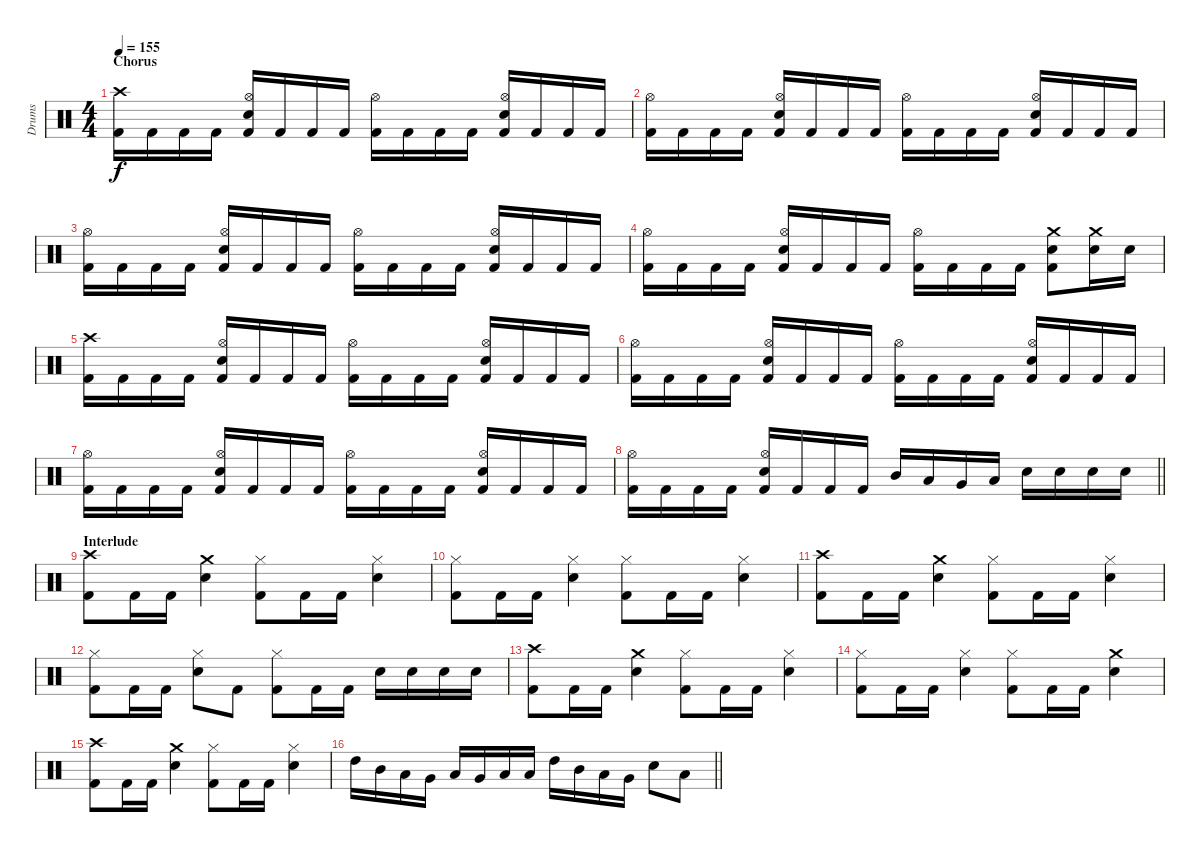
\track ("Drums" "Drums") {instrument percussion}
\staff {score}
\articulation defaults
\ts (4 4)
\section ("" "Chorus")
\tempo 155
\clef neutral
\ks c
("Crash high (hit)" "Kick (hit) 2").16{dy f} "Kick (hit) 2".16 "Kick (hit) 2".16 "Kick (hit) 2".16 ("Hi-Hat (open)" "Snare (hit) 2" "Kick (hit) 2").16 "Kick (hit) 2".16 "Kick (hit) 2".16 "Kick (hit) 2".16 ("Hi-Hat (open)" "Kick (hit) 2").16 "Kick (hit) 2".16 "Kick (hit) 2".16 "Kick (hit) 2".16 ("Hi-Hat (open)" "Snare (hit) 2" "Kick (hit) 2").16 "Kick (hit) 2".16 "Kick (hit) 2".16 "Kick (hit) 2".16 |
("Hi-Hat (open)" "Kick (hit) 2").16 "Kick (hit) 2".16 "Kick (hit) 2".16 "Kick (hit) 2".16 ("Hi-Hat (open)" "Snare (hit) 2" "Kick (hit) 2").16 "Kick (hit) 2".16 "Kick (hit) 2".16 "Kick (hit) 2".16 ("Hi-Hat (open)" "Kick (hit) 2").16 "Kick (hit) 2".16 "Kick (hit) 2".16 "Kick (hit) 2".16 ("Hi-Hat (open)" "Snare (hit) 2" "Kick (hit) 2").16 "Kick (hit) 2".16 "Kick (hit) 2".16 "Kick (hit) 2".16 |
("Hi-Hat (open)" "Kick (hit) 2").16 "Kick (hit) 2".16 "Kick (hit) 2".16 "Kick (hit) 2".16 ("Hi-Hat (open)" "Snare (hit) 2" "Kick (hit) 2").16 "Kick (hit) 2".16 "Kick (hit) 2".16 "Kick (hit) 2".16 ("Hi-Hat (open)" "Kick (hit) 2").16 "Kick (hit) 2".16 "Kick (hit) 2".16 "Kick (hit) 2".16 ("Hi-Hat (open)" "Snare (hit) 2" "Kick (hit) 2").16 "Kick (hit) 2".16 "Kick (hit) 2".16 "Kick (hit) 2".16 |
("Hi-Hat (open)" "Kick (hit) 2").16 "Kick (hit) 2".16 "Kick (hit) 2".16 "Kick (hit) 2".16 ("Hi-Hat (open)" "Snare (hit) 2" "Kick (hit) 2").16 "Kick (hit) 2".16 "Kick (hit) 2".16 "Kick (hit) 2".16 ("Hi-Hat (open)" "Kick (hit) 2").16 "Kick (hit) 2".16 "Kick (hit) 2".16 "Kick (hit) 2".16 ("Crash medium (hit)" "Snare (hit) 2" "Kick (hit) 2").8 ("Crash medium (hit)" "Snare (hit) 2").16 "Snare (hit) 2".16 |
("Crash high (hit)" "Kick (hit) 2").16 "Kick (hit) 2".16 "Kick (hit) 2".16 "Kick (hit) 2".16 ("Hi-Hat (open)" "Snare (hit) 2" "Kick (hit) 2").16 "Kick (hit) 2".16 "Kick (hit) 2".16 "Kick (hit) 2".16 ("Hi-Hat (open)" "Kick (hit) 2").16 "Kick (hit) 2".16 "Kick (hit) 2".16 "Kick (hit) 2".16 ("Hi-Hat (open)" "Snare (hit) 2" "Kick (hit) 2").16 "Kick (hit) 2".16 "Kick (hit) 2".16 "Kick (hit) 2".16 |
("Hi-Hat (open)" "Kick (hit) 2").16 "Kick (hit) 2".16 "Kick (hit) 2".16 "Kick (hit) 2".16 ("Hi-Hat (open)" "Snare (hit) 2" "Kick (hit) 2").16 "Kick (hit) 2".16 "Kick (hit) 2".16 "Kick (hit) 2".16 ("Hi-Hat (open)" "Kick (hit) 2").16 "Kick (hit) 2".16 "Kick (hit) 2".16 "Kick (hit) 2".16 ("Hi-Hat (open)" "Snare (hit) 2" "Kick (hit) 2").16 "Kick (hit) 2".16 "Kick (hit) 2".16 "Kick (hit) 2".16 |
("Hi-Hat (open)" "Kick (hit) 2").16 "Kick (hit) 2".16 "Kick (hit) 2".16 "Kick (hit) 2".16 ("Hi-Hat (open)" "Snare (hit) 2" "Kick (hit) 2").16 "Kick (hit) 2".16 "Kick (hit) 2".16 "Kick (hit) 2".16 ("Hi-Hat (open)" "Kick (hit) 2").16 "Kick (hit) 2".16 "Kick (hit) 2".16 "Kick (hit) 2".16 ("Hi-Hat (open)" "Snare (hit) 2" "Kick (hit) 2").16 "Kick (hit) 2".16 "Kick (hit) 2".16 "Kick (hit) 2".16 |
\barLineRight lightlight
("Hi-Hat (open)" "Kick (hit) 2").16 "Kick (hit) 2".16 "Kick (hit) 2".16 "Kick (hit) 2".16 ("Hi-Hat (open)" "Snare (hit) 2" "Kick (hit) 2").16 "Kick (hit) 2".16 "Kick (hit) 2".16 "Kick (hit) 2".16 "Mid Tom (hit)".16 "Low Tom (hit)".16 "Very Low Tom (hit)".16 "Low Floor Tom (hit)".16 "Snare (hit) 2".16 "Snare (hit) 2".16 "Snare (hit) 2".16 "Snare (hit) 2".16 |
\section ("" "Interlude")
("Crash high (hit)" "Kick (hit) 2").8 "Kick (hit) 2".16 "Kick (hit) 2".16 ("Crash medium (hit)" "Snare (hit) 2").4 ("Hi-Hat (closed)" "Kick (hit) 2").8 "Kick (hit) 2".16 "Kick (hit) 2".16 ("Hi-Hat (closed)" "Snare (hit) 2").4 |
("Hi-Hat (closed)" "Kick (hit) 2").8 "Kick (hit) 2".16 "Kick (hit) 2".16 ("Hi-Hat (closed)" "Snare (hit) 2").4 ("Hi-Hat (closed)" "Kick (hit) 2").8 "Kick (hit) 2".16 "Kick (hit) 2".16 ("Hi-Hat (closed)" "Snare (hit) 2").4 |
("Crash high (hit)" "Kick (hit) 2").8 "Kick (hit) 2".16 "Kick (hit) 2".16 ("Crash medium (hit)" "Snare (hit) 2").4 ("Hi-Hat (closed)" "Kick (hit) 2").8 "Kick (hit) 2".16 "Kick (hit) 2".16 ("Hi-Hat (closed)" "Snare (hit) 2").4 |
("Hi-Hat (closed)" "Kick (hit) 2").8 "Kick (hit) 2".16 "Kick (hit) 2".16 ("Hi-Hat (closed)" "Snare (hit) 2").8 "Kick (hit) 2".8 ("Hi-Hat (closed)" "Kick (hit) 2").8 "Kick (hit) 2".16 "Kick (hit) 2".16 "Snare (hit) 2".16 "Snare (hit) 2".16 "Snare (hit) 2".16 "Snare (hit) 2".16 |
("Crash high (hit)" "Kick (hit) 2").8 "Kick (hit) 2".16 "Kick (hit) 2".16 ("Crash medium (hit)" "Snare (hit) 2").4 ("Hi-Hat (closed)" "Kick (hit) 2").8 "Kick (hit) 2".16 "Kick (hit) 2".16 ("Hi-Hat (closed)" "Snare (hit) 2").4 |
("Hi-Hat (closed)" "Kick (hit) 2").8 "Kick (hit) 2".16 "Kick (hit) 2".16 ("Hi-Hat (closed)" "Snare (hit) 2").4 ("Hi-Hat (closed)" "Kick (hit) 2").8 "Kick (hit) 2".16 "Kick (hit) 2".16 ("Crash medium (hit)" "Snare (hit) 2").4 |
("Crash high (hit)" "Kick (hit) 2").8 "Kick (hit) 2".16 "Kick (hit) 2".16 ("Crash medium (hit)" "Snare (hit) 2").4 ("Hi-Hat (closed)" "Kick (hit) 2").8 "Kick (hit) 2".16 "Kick (hit) 2".16 ("Hi-Hat (closed)" "Snare (hit) 2").4 |
\barLineRight lightlight "High Tom (hit)".16 "Mid Tom (hit)".16 "Low Tom (hit)".16 "Very Low Tom (hit)".16 "Low Tom (hit)".16 "Very Low Tom (hit)".16 "Low Floor Tom (hit)".16 "Low Tom (hit)".16 "High Tom (hit)".16 "Mid Tom (hit)".16 "Low Tom (hit)".16 "Very Low Tom (hit)".16 "Snare (hit) 2".8 "Low Tom (hit)".8
